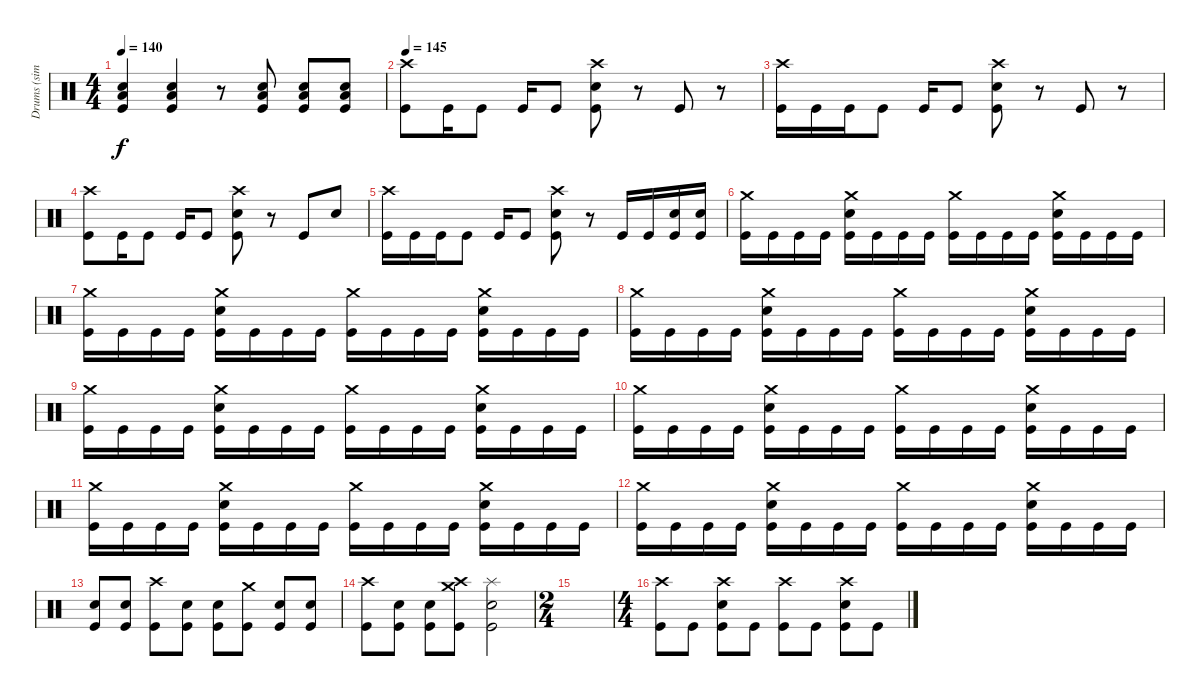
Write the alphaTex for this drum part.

\track ("Drums (simple)" "Drums (sim") {instrument percussion}
\staff {score}
\articulation defaults
\ts (4 4)
\tempo 140
\clef neutral
\ks c
("Low Tom (hit)" "Snare (hit) 2" "Kick (hit)").4{dy f} ("Low Tom (hit)" "Snare (hit) 2" "Kick (hit)").4 r.8 ("Low Tom (hit)" "Snare (hit) 2" "Kick (hit)").8 ("Low Tom (hit)" "Snare (hit) 2" "Kick (hit)").8 ("Low Tom (hit)" "Snare (hit) 2" "Kick (hit)").8 |
\tempo 145
("Crash high (hit)" "Kick (hit)").8 "Kick (hit)".16 "Kick (hit)".8 "Kick (hit)".16 "Kick (hit)".8 ("Crash high (hit)" "Snare (hit) 2" "Kick (hit)").8 r.8 "Kick (hit)".8 r.8 |
("Crash high (hit)" "Kick (hit)").16 "Kick (hit)".16 "Kick (hit)".16 "Kick (hit)".8 "Kick (hit)".16 "Kick (hit)".8 ("Crash high (hit)" "Snare (hit) 2" "Kick (hit)").8 r.8 "Kick (hit)".8 r.8 |
("Crash high (hit)" "Kick (hit)").8 "Kick (hit)".16 "Kick (hit)".8 "Kick (hit)".16 "Kick (hit)".8 ("Crash high (hit)" "Snare (hit) 2" "Kick (hit)").8 r.8 "Kick (hit)".8 "Snare (hit) 2".8 |
("Crash high (hit)" "Kick (hit)").16 "Kick (hit)".16 "Kick (hit)".16 "Kick (hit)".8 "Kick (hit)".16 "Kick (hit)".8 ("Crash high (hit)" "Snare (hit) 2" "Kick (hit)").8 r.8 "Kick (hit)".16 "Kick (hit)".16 ("Snare (hit) 2" "Kick (hit)").16 ("Snare (hit) 2" "Kick (hit)").16 |
("Crash medium (hit)" "Kick (hit)").16 "Kick (hit)".16 "Kick (hit)".16 "Kick (hit)".16 ("Crash medium (hit)" "Snare (hit) 2" "Kick (hit)").16 "Kick (hit)".16 "Kick (hit)".16 "Kick (hit)".16 ("Crash medium (hit)" "Kick (hit)").16 "Kick (hit)".16 "Kick (hit)".16 "Kick (hit)".16 ("Crash medium (hit)" "Snare (hit) 2" "Kick (hit)").16 "Kick (hit)".16 "Kick (hit)".16 "Kick (hit)".16 |
("Crash medium (hit)" "Kick (hit)").16 "Kick (hit)".16 "Kick (hit)".16 "Kick (hit)".16 ("Crash medium (hit)" "Snare (hit) 2" "Kick (hit)").16 "Kick (hit)".16 "Kick (hit)".16 "Kick (hit)".16 ("Crash medium (hit)" "Kick (hit)").16 "Kick (hit)".16 "Kick (hit)".16 "Kick (hit)".16 ("Crash medium (hit)" "Snare (hit) 2" "Kick (hit)").16 "Kick (hit)".16 "Kick (hit)".16 "Kick (hit)".16 |
("Crash medium (hit)" "Kick (hit)").16 "Kick (hit)".16 "Kick (hit)".16 "Kick (hit)".16 ("Crash medium (hit)" "Snare (hit) 2" "Kick (hit)").16 "Kick (hit)".16 "Kick (hit)".16 "Kick (hit)".16 ("Crash medium (hit)" "Kick (hit)").16 "Kick (hit)".16 "Kick (hit)".16 "Kick (hit)".16 ("Crash medium (hit)" "Snare (hit) 2" "Kick (hit)").16 "Kick (hit)".16 "Kick (hit)".16 "Kick (hit)".16 |
("Crash medium (hit)" "Kick (hit)").16 "Kick (hit)".16 "Kick (hit)".16 "Kick (hit)".16 ("Crash medium (hit)" "Snare (hit) 2" "Kick (hit)").16 "Kick (hit)".16 "Kick (hit)".16 "Kick (hit)".16 ("Crash medium (hit)" "Kick (hit)").16 "Kick (hit)".16 "Kick (hit)".16 "Kick (hit)".16 ("Crash medium (hit)" "Snare (hit) 2" "Kick (hit)").16 "Kick (hit)".16 "Kick (hit)".16 "Kick (hit)".16 |
("Crash medium (hit)" "Kick (hit)").16 "Kick (hit)".16 "Kick (hit)".16 "Kick (hit)".16 ("Crash medium (hit)" "Snare (hit) 2" "Kick (hit)").16 "Kick (hit)".16 "Kick (hit)".16 "Kick (hit)".16 ("Crash medium (hit)" "Kick (hit)").16 "Kick (hit)".16 "Kick (hit)".16 "Kick (hit)".16 ("Crash medium (hit)" "Snare (hit) 2" "Kick (hit)").16 "Kick (hit)".16 "Kick (hit)".16 "Kick (hit)".16 |
("Crash medium (hit)" "Kick (hit)").16 "Kick (hit)".16 "Kick (hit)".16 "Kick (hit)".16 ("Crash medium (hit)" "Snare (hit) 2" "Kick (hit)").16 "Kick (hit)".16 "Kick (hit)".16 "Kick (hit)".16 ("Crash medium (hit)" "Kick (hit)").16 "Kick (hit)".16 "Kick (hit)".16 "Kick (hit)".16 ("Crash medium (hit)" "Snare (hit) 2" "Kick (hit)").16 "Kick (hit)".16 "Kick (hit)".16 "Kick (hit)".16 |
("Crash medium (hit)" "Kick (hit)").16 "Kick (hit)".16 "Kick (hit)".16 "Kick (hit)".16 ("Crash medium (hit)" "Snare (hit) 2" "Kick (hit)").16 "Kick (hit)".16 "Kick (hit)".16 "Kick (hit)".16 ("Crash medium (hit)" "Kick (hit)").16 "Kick (hit)".16 "Kick (hit)".16 "Kick (hit)".16 ("Crash medium (hit)" "Snare (hit) 2" "Kick (hit)").16 "Kick (hit)".16 "Kick (hit)".16 "Kick (hit)".16 |
("Snare (hit) 2" "Kick (hit)").8 ("Snare (hit) 2" "Kick (hit)").8 ("Crash high (hit)" "Kick (hit)").8 ("Snare (hit) 2" "Kick (hit)").8 ("Snare (hit) 2" "Kick (hit)").8 ("Crash medium (hit)" "Kick (hit)").8 ("Snare (hit) 2" "Kick (hit)").8 ("Snare (hit) 2" "Kick (hit)").8 |
("Crash high (hit)" "Kick (hit)").8 ("Snare (hit) 2" "Kick (hit)").8 ("Snare (hit) 2" "Kick (hit)").8 ("Crash high (hit)" "Crash medium (hit)" "Kick (hit)").8 ("Splash (hit)" "Snare (hit) 2" "Kick (hit)").2 |
\ts (2 4)
|
\ts (4 4)
("Crash high (hit)" "Kick (hit)").8 "Kick (hit)".8 ("Crash high (hit)" "Snare (hit) 2" "Kick (hit)").8 "Kick (hit)".8 ("Crash high (hit)" "Kick (hit)").8 "Kick (hit)".8 ("Crash high (hit)" "Snare (hit) 2" "Kick (hit)").8 "Kick (hit)".8
